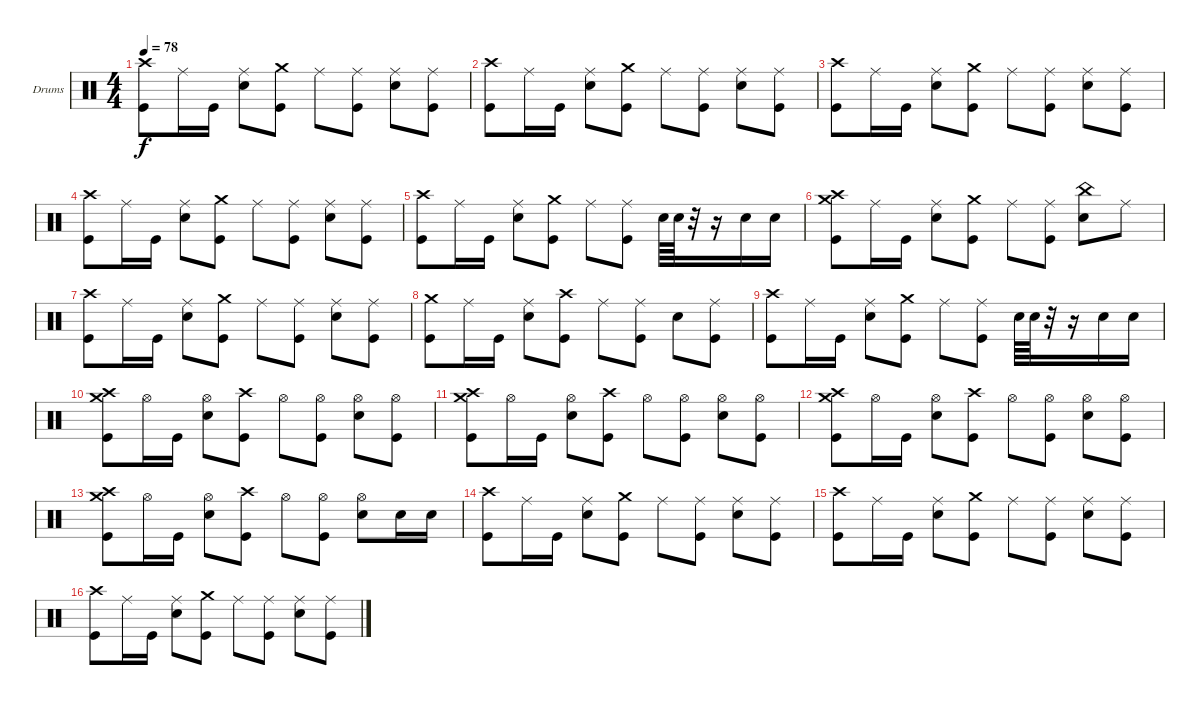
\defaultSystemsLayout 4
\bracketExtendMode nobrackets
\firstSystemTrackNameOrientation horizontal
\otherSystemsTrackNameOrientation horizontal
\track ("Dave Krusen" "Drums") {instrument percussion}
\staff {score}
\articulation defaults
\ts (4 4)
\tempo 78
\clef neutral
\ks c
("Crash high (hit)" "Kick (hit)").8{dy f} "Ride (middle)".16 "Kick (hit)".16 ("Ride (middle)" "Snare (hit) 2").8 ("Crash medium (hit)" "Kick (hit)").8 "Ride (middle)".8 ("Ride (middle)" "Kick (hit)").8 ("Ride (middle)" "Snare (hit) 2").8 ("Ride (middle)" "Kick (hit)").8 |
("Crash high (hit)" "Kick (hit)").8 "Ride (middle)".16 "Kick (hit)".16 ("Ride (middle)" "Snare (hit) 2").8 ("Crash medium (hit)" "Kick (hit)").8 "Ride (middle)".8 ("Ride (middle)" "Kick (hit)").8 ("Ride (middle)" "Snare (hit) 2").8 ("Ride (middle)" "Kick (hit)").8 |
("Crash high (hit)" "Kick (hit)").8 "Ride (middle)".16 "Kick (hit)".16 ("Ride (middle)" "Snare (hit) 2").8 ("Crash medium (hit)" "Kick (hit)").8 "Ride (middle)".8 ("Ride (middle)" "Kick (hit)").8 ("Ride (middle)" "Snare (hit) 2").8 ("Ride (middle)" "Kick (hit)").8 |
("Crash high (hit)" "Kick (hit)").8 "Ride (middle)".16 "Kick (hit)".16 ("Ride (middle)" "Snare (hit) 2").8 ("Crash medium (hit)" "Kick (hit)").8 "Ride (middle)".8 ("Ride (middle)" "Kick (hit)").8 ("Ride (middle)" "Snare (hit) 2").8 ("Ride (middle)" "Kick (hit)").8 |
("Crash high (hit)" "Kick (hit)").8 "Ride (middle)".16 "Kick (hit)".16 ("Ride (middle)" "Snare (hit) 2").8 ("Crash medium (hit)" "Kick (hit)").8 "Ride (middle)".8 ("Ride (middle)" "Kick (hit)").8 "Snare (hit) 2".64 "Snare (hit) 2".64 r.32 r.16 "Snare (hit) 2".16 "Snare (hit) 2".16 |
("Crash high (hit)" "Crash medium (hit)" "Kick (hit)").8 "Ride (middle)".16 "Kick (hit)".16 ("Ride (middle)" "Snare (hit) 2").8 ("Crash medium (hit)" "Kick (hit)").8 "Ride (middle)".8 ("Ride (middle)" "Kick (hit)").8 ("China (hit)" "Snare (hit) 2").8 "Ride (middle)".8 |
("Crash high (hit)" "Kick (hit)").8 "Ride (middle)".16 "Kick (hit)".16 ("Ride (middle)" "Snare (hit) 2").8 ("Crash medium (hit)" "Kick (hit)").8 "Ride (middle)".8 ("Ride (middle)" "Kick (hit)").8 ("Ride (middle)" "Snare (hit) 2").8 ("Ride (middle)" "Kick (hit)").8 |
("Crash medium (hit)" "Kick (hit)").8 "Ride (middle)".16 "Kick (hit)".16 ("Ride (middle)" "Snare (hit) 2").8 ("Crash high (hit)" "Kick (hit)").8 "Ride (middle)".8 ("Ride (middle)" "Kick (hit)").8 "Snare (hit) 2".8 ("Ride (middle)" "Kick (hit)").8 |
("Crash high (hit)" "Kick (hit)").8 "Ride (middle)".16 "Kick (hit)".16 ("Ride (middle)" "Snare (hit) 2").8 ("Crash medium (hit)" "Kick (hit)").8 "Ride (middle)".8 ("Ride (middle)" "Kick (hit)").8 "Snare (hit) 2".64 "Snare (hit) 2".64 r.32 r.16 "Snare (hit) 2".16 "Snare (hit) 2".16 |
("Crash high (hit)" "Crash medium (hit)" "Kick (hit)").8 "Hi-Hat (open)".16 "Kick (hit)".16 ("Hi-Hat (open)" "Snare (hit) 2").8 ("Crash high (hit)" "Kick (hit)").8 "Hi-Hat (open)".8 ("Hi-Hat (open)" "Kick (hit)").8 ("Hi-Hat (open)" "Snare (hit) 2").8 ("Hi-Hat (open)" "Kick (hit)").8 |
("Crash high (hit)" "Crash medium (hit)" "Kick (hit)").8 "Hi-Hat (open)".16 "Kick (hit)".16 ("Hi-Hat (open)" "Snare (hit) 2").8 ("Crash high (hit)" "Kick (hit)").8 "Hi-Hat (open)".8 ("Hi-Hat (open)" "Kick (hit)").8 ("Hi-Hat (open)" "Snare (hit) 2").8 ("Hi-Hat (open)" "Kick (hit)").8 |
("Crash high (hit)" "Crash medium (hit)" "Kick (hit)").8 "Hi-Hat (open)".16 "Kick (hit)".16 ("Hi-Hat (open)" "Snare (hit) 2").8 ("Crash high (hit)" "Kick (hit)").8 "Hi-Hat (open)".8 ("Hi-Hat (open)" "Kick (hit)").8 ("Hi-Hat (open)" "Snare (hit) 2").8 ("Hi-Hat (open)" "Kick (hit)").8 |
("Crash high (hit)" "Crash medium (hit)" "Kick (hit)").8 "Hi-Hat (open)".16 "Kick (hit)".16 ("Hi-Hat (open)" "Snare (hit) 2").8 ("Crash high (hit)" "Kick (hit)").8 "Hi-Hat (open)".8 ("Hi-Hat (open)" "Kick (hit)").8 ("Hi-Hat (open)" "Snare (hit) 2").8 "Snare (hit) 2".16 "Snare (hit) 2".16 |
("Crash high (hit)" "Kick (hit)").8 "Ride (middle)".16 "Kick (hit)".16 ("Ride (middle)" "Snare (hit) 2").8 ("Crash medium (hit)" "Kick (hit)").8 "Ride (middle)".8 ("Ride (middle)" "Kick (hit)").8 ("Ride (middle)" "Snare (hit) 2").8 ("Ride (middle)" "Kick (hit)").8 |
("Crash high (hit)" "Kick (hit)").8 "Ride (middle)".16 "Kick (hit)".16 ("Ride (middle)" "Snare (hit) 2").8 ("Crash medium (hit)" "Kick (hit)").8 "Ride (middle)".8 ("Ride (middle)" "Kick (hit)").8 ("Ride (middle)" "Snare (hit) 2").8 ("Ride (middle)" "Kick (hit)").8 |
("Crash high (hit)" "Kick (hit)").8 "Ride (middle)".16 "Kick (hit)".16 ("Ride (middle)" "Snare (hit) 2").8 ("Crash medium (hit)" "Kick (hit)").8 "Ride (middle)".8 ("Ride (middle)" "Kick (hit)").8 ("Ride (middle)" "Snare (hit) 2").8 ("Ride (middle)" "Kick (hit)").8
